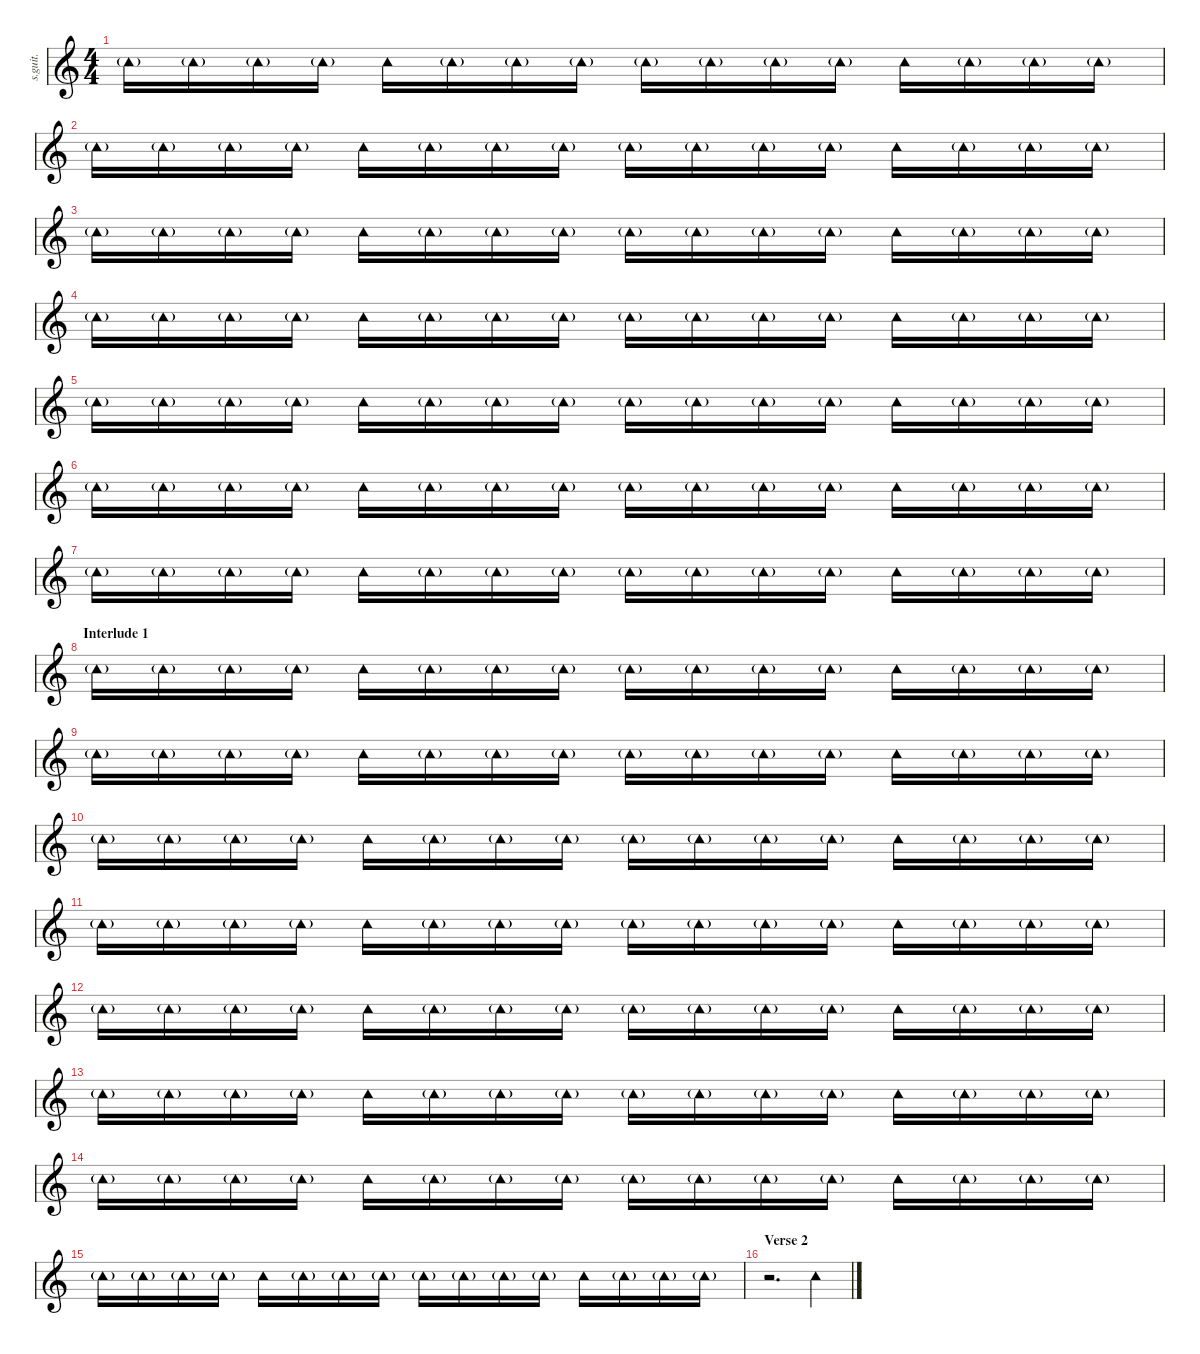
\defaultSystemsLayout 4
\hideDynamics
\bracketExtendMode nobrackets
\track ("Tambourine" "s.guit.") {instrument percussion}
\staff {score}
\articulation defaults
\ts (4 4)
\tempo (136 hide)
\clef g2
\ks c "Tambourine (hit)"{g}.16{dy pp} "Tambourine (hit)"{g}.16 "Tambourine (hit)"{g}.16 "Tambourine (hit)"{g}.16 "Tambourine (hit)".16{dy mp} "Tambourine (hit)"{g}.16{dy pp} "Tambourine (hit)"{g}.16 "Tambourine (hit)"{g}.16 "Tambourine (hit)"{g}.16 "Tambourine (hit)"{g}.16 "Tambourine (hit)"{g}.16 "Tambourine (hit)"{g}.16 "Tambourine (hit)".16{dy mp} "Tambourine (hit)"{g}.16{dy pp} "Tambourine (hit)"{g}.16 "Tambourine (hit)"{g}.16
|
"Tambourine (hit)"{g}.16 "Tambourine (hit)"{g}.16 "Tambourine (hit)"{g}.16 "Tambourine (hit)"{g}.16 "Tambourine (hit)".16{dy mp} "Tambourine (hit)"{g}.16{dy pp} "Tambourine (hit)"{g}.16 "Tambourine (hit)"{g}.16 "Tambourine (hit)"{g}.16 "Tambourine (hit)"{g}.16 "Tambourine (hit)"{g}.16 "Tambourine (hit)"{g}.16 "Tambourine (hit)".16{dy mp} "Tambourine (hit)"{g}.16{dy pp} "Tambourine (hit)"{g}.16 "Tambourine (hit)"{g}.16 |
"Tambourine (hit)"{g}.16 "Tambourine (hit)"{g}.16 "Tambourine (hit)"{g}.16 "Tambourine (hit)"{g}.16 "Tambourine (hit)".16{dy mp} "Tambourine (hit)"{g}.16{dy pp} "Tambourine (hit)"{g}.16 "Tambourine (hit)"{g}.16 "Tambourine (hit)"{g}.16 "Tambourine (hit)"{g}.16 "Tambourine (hit)"{g}.16 "Tambourine (hit)"{g}.16 "Tambourine (hit)".16{dy mp} "Tambourine (hit)"{g}.16{dy pp} "Tambourine (hit)"{g}.16 "Tambourine (hit)"{g}.16 |
"Tambourine (hit)"{g}.16 "Tambourine (hit)"{g}.16 "Tambourine (hit)"{g}.16 "Tambourine (hit)"{g}.16 "Tambourine (hit)".16{dy mp} "Tambourine (hit)"{g}.16{dy pp} "Tambourine (hit)"{g}.16 "Tambourine (hit)"{g}.16 "Tambourine (hit)"{g}.16 "Tambourine (hit)"{g}.16 "Tambourine (hit)"{g}.16 "Tambourine (hit)"{g}.16 "Tambourine (hit)".16{dy mp} "Tambourine (hit)"{g}.16{dy pp} "Tambourine (hit)"{g}.16 "Tambourine (hit)"{g}.16 |
"Tambourine (hit)"{g}.16 "Tambourine (hit)"{g}.16 "Tambourine (hit)"{g}.16 "Tambourine (hit)"{g}.16 "Tambourine (hit)".16{dy mp} "Tambourine (hit)"{g}.16{dy pp} "Tambourine (hit)"{g}.16 "Tambourine (hit)"{g}.16 "Tambourine (hit)"{g}.16 "Tambourine (hit)"{g}.16 "Tambourine (hit)"{g}.16 "Tambourine (hit)"{g}.16 "Tambourine (hit)".16{dy mp} "Tambourine (hit)"{g}.16{dy pp} "Tambourine (hit)"{g}.16 "Tambourine (hit)"{g}.16 |
"Tambourine (hit)"{g}.16 "Tambourine (hit)"{g}.16 "Tambourine (hit)"{g}.16 "Tambourine (hit)"{g}.16 "Tambourine (hit)".16{dy mp} "Tambourine (hit)"{g}.16{dy pp} "Tambourine (hit)"{g}.16 "Tambourine (hit)"{g}.16 "Tambourine (hit)"{g}.16 "Tambourine (hit)"{g}.16 "Tambourine (hit)"{g}.16 "Tambourine (hit)"{g}.16 "Tambourine (hit)".16{dy mp} "Tambourine (hit)"{g}.16{dy pp} "Tambourine (hit)"{g}.16 "Tambourine (hit)"{g}.16 |
"Tambourine (hit)"{g}.16 "Tambourine (hit)"{g}.16 "Tambourine (hit)"{g}.16 "Tambourine (hit)"{g}.16 "Tambourine (hit)".16{dy mp} "Tambourine (hit)"{g}.16{dy pp} "Tambourine (hit)"{g}.16 "Tambourine (hit)"{g}.16 "Tambourine (hit)"{g}.16 "Tambourine (hit)"{g}.16 "Tambourine (hit)"{g}.16 "Tambourine (hit)"{g}.16 "Tambourine (hit)".16{dy mp} "Tambourine (hit)"{g}.16{dy pp} "Tambourine (hit)"{g}.16 "Tambourine (hit)"{g}.16 |
\section ("" "Interlude 1")
"Tambourine (hit)"{g}.16 "Tambourine (hit)"{g}.16 "Tambourine (hit)"{g}.16 "Tambourine (hit)"{g}.16 "Tambourine (hit)".16{dy mp} "Tambourine (hit)"{g}.16{dy pp} "Tambourine (hit)"{g}.16 "Tambourine (hit)"{g}.16 "Tambourine (hit)"{g}.16 "Tambourine (hit)"{g}.16 "Tambourine (hit)"{g}.16 "Tambourine (hit)"{g}.16 "Tambourine (hit)".16{dy mp} "Tambourine (hit)"{g}.16{dy pp} "Tambourine (hit)"{g}.16 "Tambourine (hit)"{g}.16 |
"Tambourine (hit)"{g}.16 "Tambourine (hit)"{g}.16 "Tambourine (hit)"{g}.16 "Tambourine (hit)"{g}.16 "Tambourine (hit)".16{dy mp} "Tambourine (hit)"{g}.16{dy pp} "Tambourine (hit)"{g}.16 "Tambourine (hit)"{g}.16 "Tambourine (hit)"{g}.16 "Tambourine (hit)"{g}.16 "Tambourine (hit)"{g}.16 "Tambourine (hit)"{g}.16 "Tambourine (hit)".16{dy mp} "Tambourine (hit)"{g}.16{dy pp} "Tambourine (hit)"{g}.16 "Tambourine (hit)"{g}.16 |
"Tambourine (hit)"{g}.16 "Tambourine (hit)"{g}.16 "Tambourine (hit)"{g}.16 "Tambourine (hit)"{g}.16 "Tambourine (hit)".16{dy mp} "Tambourine (hit)"{g}.16{dy pp} "Tambourine (hit)"{g}.16 "Tambourine (hit)"{g}.16 "Tambourine (hit)"{g}.16 "Tambourine (hit)"{g}.16 "Tambourine (hit)"{g}.16 "Tambourine (hit)"{g}.16 "Tambourine (hit)".16{dy mp} "Tambourine (hit)"{g}.16{dy pp} "Tambourine (hit)"{g}.16 "Tambourine (hit)"{g}.16 |
"Tambourine (hit)"{g}.16 "Tambourine (hit)"{g}.16 "Tambourine (hit)"{g}.16 "Tambourine (hit)"{g}.16 "Tambourine (hit)".16{dy mp} "Tambourine (hit)"{g}.16{dy pp} "Tambourine (hit)"{g}.16 "Tambourine (hit)"{g}.16 "Tambourine (hit)"{g}.16 "Tambourine (hit)"{g}.16 "Tambourine (hit)"{g}.16 "Tambourine (hit)"{g}.16 "Tambourine (hit)".16{dy mp} "Tambourine (hit)"{g}.16{dy pp} "Tambourine (hit)"{g}.16 "Tambourine (hit)"{g}.16 |
"Tambourine (hit)"{g}.16 "Tambourine (hit)"{g}.16 "Tambourine (hit)"{g}.16 "Tambourine (hit)"{g}.16 "Tambourine (hit)".16{dy mp} "Tambourine (hit)"{g}.16{dy pp} "Tambourine (hit)"{g}.16 "Tambourine (hit)"{g}.16 "Tambourine (hit)"{g}.16 "Tambourine (hit)"{g}.16 "Tambourine (hit)"{g}.16 "Tambourine (hit)"{g}.16 "Tambourine (hit)".16{dy mp} "Tambourine (hit)"{g}.16{dy pp} "Tambourine (hit)"{g}.16 "Tambourine (hit)"{g}.16 |
"Tambourine (hit)"{g}.16 "Tambourine (hit)"{g}.16 "Tambourine (hit)"{g}.16 "Tambourine (hit)"{g}.16 "Tambourine (hit)".16{dy mp} "Tambourine (hit)"{g}.16{dy pp} "Tambourine (hit)"{g}.16 "Tambourine (hit)"{g}.16 "Tambourine (hit)"{g}.16 "Tambourine (hit)"{g}.16 "Tambourine (hit)"{g}.16 "Tambourine (hit)"{g}.16 "Tambourine (hit)".16{dy mp} "Tambourine (hit)"{g}.16{dy pp} "Tambourine (hit)"{g}.16 "Tambourine (hit)"{g}.16 |
"Tambourine (hit)"{g}.16 "Tambourine (hit)"{g}.16 "Tambourine (hit)"{g}.16 "Tambourine (hit)"{g}.16 "Tambourine (hit)".16{dy mp} "Tambourine (hit)"{g}.16{dy pp} "Tambourine (hit)"{g}.16 "Tambourine (hit)"{g}.16 "Tambourine (hit)"{g}.16 "Tambourine (hit)"{g}.16 "Tambourine (hit)"{g}.16 "Tambourine (hit)"{g}.16 "Tambourine (hit)".16{dy mp} "Tambourine (hit)"{g}.16{dy pp} "Tambourine (hit)"{g}.16 "Tambourine (hit)"{g}.16 |
"Tambourine (hit)"{g}.16 "Tambourine (hit)"{g}.16 "Tambourine (hit)"{g}.16 "Tambourine (hit)"{g}.16 "Tambourine (hit)".16{dy mp} "Tambourine (hit)"{g}.16{dy pp} "Tambourine (hit)"{g}.16 "Tambourine (hit)"{g}.16 "Tambourine (hit)"{g}.16 "Tambourine (hit)"{g}.16 "Tambourine (hit)"{g}.16 "Tambourine (hit)"{g}.16 "Tambourine (hit)".16{dy mp} "Tambourine (hit)"{g}.16{dy pp} "Tambourine (hit)"{g}.16 "Tambourine (hit)"{g}.16 |
\section ("" "Verse 2")
r.2{d} "Tambourine (hit)".4{dy f}
